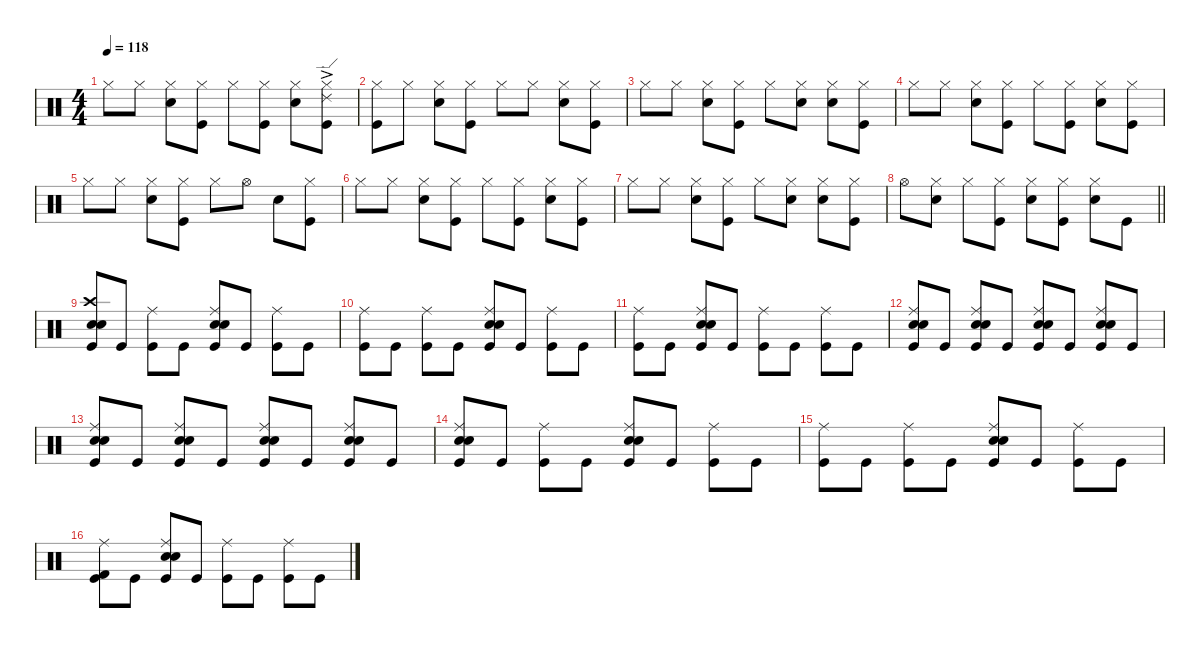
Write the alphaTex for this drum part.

\defaultSystemsLayout 4
\hideDynamics
\bracketExtendMode nobrackets
\singleTrackTrackNamePolicy hidden
\multiTrackTrackNamePolicy hidden
\firstSystemTrackNameMode fullname
\otherSystemsTrackNameOrientation horizontal
\track ("Drums" "drm.") {instrument percussion}
\staff {score}
\articulation defaults
\ts (4 4)
\tempo 118
\clef neutral
\ks c "Hi-Hat (closed)".8{dy f beam Down} "Hi-Hat (closed)".8{beam Down}
("Hi-Hat (closed)" "Snare (hit) 2").8{beam Down} ("Hi-Hat (closed)" "Kick (hit)").8{beam Down} "Hi-Hat (closed)".8{beam Down} ("Hi-Hat (closed)" "Kick (hit)").8{beam Down} ("Hi-Hat (closed)" "Snare (hit) 2").8{beam Down} ("Hi-Hat (closed)" "Ride (edge) 2"{ac} "Kick (hit)").8{beam Down} |
("Hi-Hat (closed)" "Kick (hit)").8{beam Down} "Hi-Hat (closed)".8{beam Down} ("Hi-Hat (closed)" "Snare (hit) 2").8{beam Down} ("Hi-Hat (closed)" "Kick (hit)").8{beam Down} "Hi-Hat (closed)".8{beam Down} "Hi-Hat (closed)".8{beam Down} ("Hi-Hat (closed)" "Snare (hit) 2").8{beam Down} ("Hi-Hat (closed)" "Kick (hit)").8{beam Down} |
"Hi-Hat (closed)".8{beam Down} "Hi-Hat (closed)".8{beam Down} ("Hi-Hat (closed)" "Snare (hit) 2").8{beam Down} ("Hi-Hat (closed)" "Kick (hit)").8{beam Down} "Hi-Hat (closed)".8{beam Down} ("Hi-Hat (closed)" "Snare (hit) 2").8{beam Down} ("Hi-Hat (closed)" "Snare (hit) 2").8{beam Down} ("Hi-Hat (closed)" "Kick (hit)").8{beam Down} |
"Hi-Hat (closed)".8{beam Down} "Hi-Hat (closed)".8{beam Down} ("Hi-Hat (closed)" "Snare (hit) 2").8{beam Down} ("Hi-Hat (closed)" "Kick (hit)").8{beam Down} "Hi-Hat (closed)".8{beam Down} ("Hi-Hat (closed)" "Kick (hit)").8{beam Down} ("Hi-Hat (closed)" "Snare (hit) 2").8{beam Down} ("Hi-Hat (closed)" "Kick (hit)").8{beam Down} |
"Hi-Hat (closed)".8{beam Down} "Hi-Hat (closed)".8{beam Down} ("Hi-Hat (closed)" "Snare (hit) 2").8{beam Down} ("Hi-Hat (closed)" "Kick (hit)").8{beam Down} "Hi-Hat (closed)".8{beam Down} "Hi-Hat (open)".8{beam Down} "Snare (hit) 2".8{beam Down} ("Hi-Hat (closed)" "Kick (hit)").8{beam Down} |
"Hi-Hat (closed)".8{beam Down} "Hi-Hat (closed)".8{beam Down} ("Hi-Hat (closed)" "Snare (hit) 2").8{beam Down} ("Hi-Hat (closed)" "Kick (hit)").8{beam Down} "Hi-Hat (closed)".8{beam Down} ("Hi-Hat (closed)" "Kick (hit)").8{beam Down} ("Hi-Hat (closed)" "Snare (hit) 2").8{beam Down} ("Hi-Hat (closed)" "Kick (hit)").8{beam Down} |
"Hi-Hat (closed)".8{beam Down} "Hi-Hat (closed)".8{beam Down} ("Hi-Hat (closed)" "Snare (hit) 2").8{beam Down} ("Hi-Hat (closed)" "Kick (hit)").8{beam Down} "Hi-Hat (closed)".8{beam Down} ("Hi-Hat (closed)" "Snare (hit) 2").8{beam Down} ("Hi-Hat (closed)" "Snare (hit) 2").8{beam Down} ("Hi-Hat (closed)" "Kick (hit)").8{beam Down} |
\barLineRight lightlight "Hi-Hat (open)".8{beam Down}
("Hi-Hat (closed)" "Snare (hit) 2").8{beam Down} "Hi-Hat (closed)".8{beam Down} ("Hi-Hat (closed)" "Kick (hit)").8{beam Down} ("Hi-Hat (closed)" "Snare (hit) 2").8{beam Down} ("Hi-Hat (closed)" "Kick (hit)").8{beam Down} ("Hi-Hat (closed)" "Snare (hit) 2").8{beam Down} "Kick (hit)".8{beam Down} |
("Crash high (hit)" "Snare (hit) 2" "Snare (hit) 2" "Kick (hit)").8{beam Up} "Kick (hit)".8{beam Up} ("Ride (middle)" "Kick (hit)").8{beam Down} "Kick (hit)".8{beam Down} ("Ride (middle)" "Snare (hit) 2" "Snare (hit) 2" "Kick (hit)").8{beam Up} "Kick (hit)".8{beam Up} ("Ride (middle)" "Kick (hit)").8{beam Down} "Kick (hit)".8{beam Down} |
("Ride (middle)" "Kick (hit)").8{beam Down} "Kick (hit)".8{beam Down} ("Ride (middle)" "Kick (hit)").8{beam Down} "Kick (hit)".8{beam Down} ("Ride (middle)" "Snare (hit) 2" "Snare (hit) 2" "Kick (hit)").8{beam Up} "Kick (hit)".8{beam Up} ("Ride (middle)" "Kick (hit)").8{beam Down} "Kick (hit)".8{beam Down} |
("Ride (middle)" "Kick (hit)").8{beam Down} "Kick (hit)".8{beam Down} ("Ride (middle)" "Snare (hit) 2" "Snare (hit) 2" "Kick (hit)").8{beam Up} "Kick (hit)".8{beam Up} ("Ride (middle)" "Kick (hit)").8{beam Down} "Kick (hit)".8{beam Down} ("Ride (middle)" "Kick (hit)").8{beam Down} "Kick (hit)".8{beam Down} |
("Ride (middle)" "Snare (hit) 2" "Snare (hit) 2" "Kick (hit)").8{beam Up} "Kick (hit)".8{beam Up} ("Ride (middle)" "Snare (hit) 2" "Snare (hit) 2" "Kick (hit)").8{beam Up} "Kick (hit)".8{beam Up} ("Ride (middle)" "Snare (hit) 2" "Snare (hit) 2" "Kick (hit)").8{beam Up} "Kick (hit)".8{beam Up} ("Ride (middle)" "Snare (hit) 2" "Snare (hit) 2" "Kick (hit)").8{beam Up} "Kick (hit)".8{beam Up} |
("Ride (middle)" "Snare (hit) 2" "Snare (hit) 2" "Kick (hit)").8{beam Up} "Kick (hit)".8{beam Up} ("Ride (middle)" "Snare (hit) 2" "Snare (hit) 2" "Kick (hit)").8{beam Up} "Kick (hit)".8{beam Up} ("Ride (middle)" "Snare (hit) 2" "Snare (hit) 2" "Kick (hit)").8{beam Up} "Kick (hit)".8{beam Up} ("Ride (middle)" "Snare (hit) 2" "Snare (hit) 2" "Kick (hit)").8{beam Up} "Kick (hit)".8{beam Up} |
("Ride (middle)" "Snare (hit) 2" "Snare (hit) 2" "Kick (hit)").8{beam Up} "Kick (hit)".8{beam Up} ("Ride (middle)" "Kick (hit)").8{beam Down} "Kick (hit)".8{beam Down} ("Ride (middle)" "Snare (hit) 2" "Snare (hit) 2" "Kick (hit)").8{beam Up} "Kick (hit)".8{beam Up} ("Ride (middle)" "Kick (hit)").8{beam Down} "Kick (hit)".8{beam Down} |
("Ride (middle)" "Kick (hit)").8{beam Down} "Kick (hit)".8{beam Down} ("Ride (middle)" "Kick (hit)").8{beam Down} "Kick (hit)".8{beam Down} ("Ride (middle)" "Snare (hit) 2" "Snare (hit) 2" "Kick (hit)").8{beam Up} "Kick (hit)".8{beam Up} ("Ride (middle)" "Kick (hit)").8{beam Down} "Kick (hit)".8{beam Down} |
("Ride (middle)" "Kick (hit) 2" "Kick (hit)").8{beam Down} "Kick (hit)".8{beam Down} ("Ride (middle)" "Snare (hit) 2" "Snare (hit) 2" "Kick (hit)").8{beam Up} "Kick (hit)".8{beam Up} ("Ride (middle)" "Kick (hit)").8{beam Down} "Kick (hit)".8{beam Down} ("Ride (middle)" "Kick (hit)").8{beam Down} "Kick (hit)".8{beam Down}
